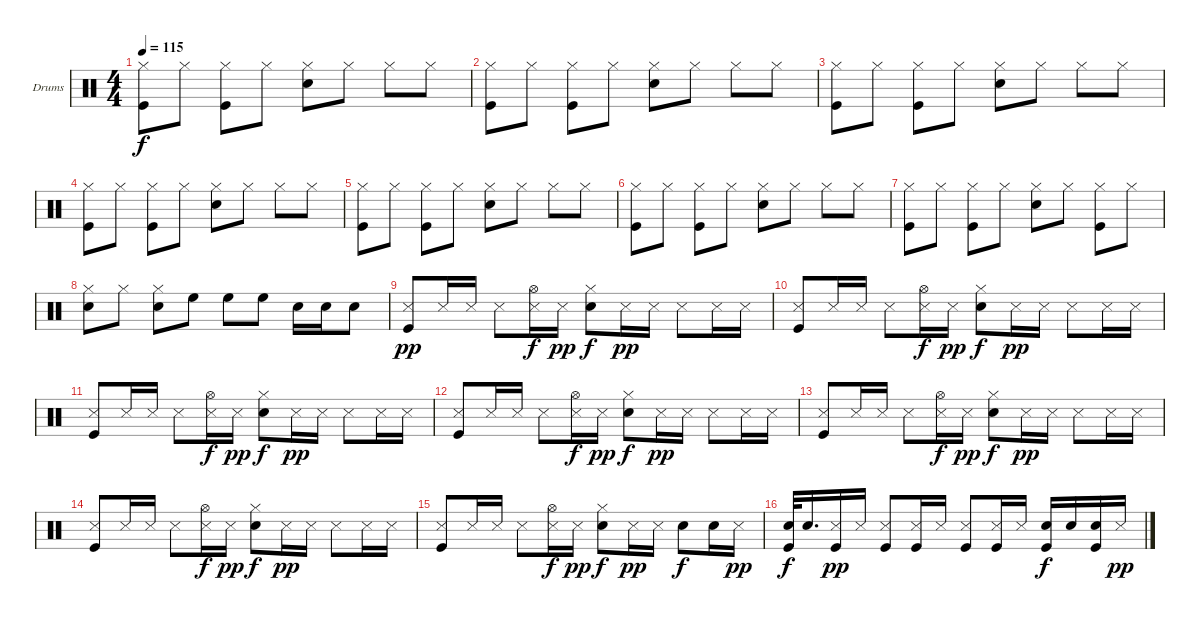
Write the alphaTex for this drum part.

\bracketExtendMode groupsimilarinstruments
\firstSystemTrackNameOrientation horizontal
\otherSystemsTrackNameOrientation horizontal
\track ("Drumkit" "Drums") {instrument percussion}
\staff {score}
\articulation defaults
\ts (4 4)
\tempo 115
\clef neutral
\ks c
("Hi-Hat (closed)" "Kick (hit)").8{dy f} "Hi-Hat (closed)".8 ("Hi-Hat (closed)" "Kick (hit)").8 "Hi-Hat (closed)".8 ("Hi-Hat (closed)" "Snare (hit) 2").8 "Hi-Hat (closed)".8 "Hi-Hat (closed)".8 "Hi-Hat (closed)".8 |
("Hi-Hat (closed)" "Kick (hit)").8 "Hi-Hat (closed)".8 ("Hi-Hat (closed)" "Kick (hit)").8 "Hi-Hat (closed)".8 ("Hi-Hat (closed)" "Snare (hit) 2").8 "Hi-Hat (closed)".8 "Hi-Hat (closed)".8 "Hi-Hat (closed)".8 |
("Hi-Hat (closed)" "Kick (hit)").8 "Hi-Hat (closed)".8 ("Hi-Hat (closed)" "Kick (hit)").8 "Hi-Hat (closed)".8 ("Hi-Hat (closed)" "Snare (hit) 2").8 "Hi-Hat (closed)".8 "Hi-Hat (closed)".8 "Hi-Hat (closed)".8 |
("Hi-Hat (closed)" "Kick (hit)").8 "Hi-Hat (closed)".8 ("Hi-Hat (closed)" "Kick (hit)").8 "Hi-Hat (closed)".8 ("Hi-Hat (closed)" "Snare (hit) 2").8 "Hi-Hat (closed)".8 "Hi-Hat (closed)".8 "Hi-Hat (closed)".8 |
("Hi-Hat (closed)" "Kick (hit)").8 "Hi-Hat (closed)".8 ("Hi-Hat (closed)" "Kick (hit)").8 "Hi-Hat (closed)".8 ("Hi-Hat (closed)" "Snare (hit) 2").8 "Hi-Hat (closed)".8 "Hi-Hat (closed)".8 "Hi-Hat (closed)".8 |
("Hi-Hat (closed)" "Kick (hit)").8 "Hi-Hat (closed)".8 ("Hi-Hat (closed)" "Kick (hit)").8 "Hi-Hat (closed)".8 ("Hi-Hat (closed)" "Snare (hit) 2").8 "Hi-Hat (closed)".8 "Hi-Hat (closed)".8 "Hi-Hat (closed)".8 |
("Hi-Hat (closed)" "Kick (hit)").8 "Hi-Hat (closed)".8 ("Hi-Hat (closed)" "Kick (hit)").8 "Hi-Hat (closed)".8 ("Hi-Hat (closed)" "Snare (hit) 2").8 "Hi-Hat (closed)".8 ("Hi-Hat (closed)" "Kick (hit)").8 "Hi-Hat (closed)".8 |
("Hi-Hat (closed)" "Snare (hit) 2").8 "Hi-Hat (closed)".8 ("Hi-Hat (closed)" "Snare (hit) 2").8 "High Floor Tom (hit)".8 "High Floor Tom (hit)".8 "High Floor Tom (hit)".8 "Snare (hit) 2".16 "Snare (hit) 2".16 "Snare (hit) 2".8 |
("Snare (side stick) 3" "Kick (hit)").8{dy pp} "Snare (side stick) 3".16 "Snare (side stick) 3".16 "Snare (side stick) 3".8 ("Hi-Hat (open)" "Snare (side stick) 3").16{dy f} "Snare (side stick) 3".16{dy pp} ("Hi-Hat (closed)" "Snare (hit) 2").8{dy f} "Snare (side stick) 3".16{dy pp} "Snare (side stick) 3".16 "Snare (side stick) 3".8 "Snare (side stick) 3".16 "Snare (side stick) 3".16 |
("Snare (side stick) 3" "Kick (hit)").8 "Snare (side stick) 3".16 "Snare (side stick) 3".16 "Snare (side stick) 3".8 ("Hi-Hat (open)" "Snare (side stick) 3").16{dy f} "Snare (side stick) 3".16{dy pp} ("Hi-Hat (closed)" "Snare (hit) 2").8{dy f} "Snare (side stick) 3".16{dy pp} "Snare (side stick) 3".16 "Snare (side stick) 3".8 "Snare (side stick) 3".16 "Snare (side stick) 3".16 |
("Snare (side stick) 3" "Kick (hit)").8 "Snare (side stick) 3".16 "Snare (side stick) 3".16 "Snare (side stick) 3".8 ("Hi-Hat (open)" "Snare (side stick) 3").16{dy f} "Snare (side stick) 3".16{dy pp} ("Hi-Hat (closed)" "Snare (hit) 2").8{dy f} "Snare (side stick) 3".16{dy pp} "Snare (side stick) 3".16 "Snare (side stick) 3".8 "Snare (side stick) 3".16 "Snare (side stick) 3".16 |
("Snare (side stick) 3" "Kick (hit)").8 "Snare (side stick) 3".16 "Snare (side stick) 3".16 "Snare (side stick) 3".8 ("Hi-Hat (open)" "Snare (side stick) 3").16{dy f} "Snare (side stick) 3".16{dy pp} ("Hi-Hat (closed)" "Snare (hit) 2").8{dy f} "Snare (side stick) 3".16{dy pp} "Snare (side stick) 3".16 "Snare (side stick) 3".8 "Snare (side stick) 3".16 "Snare (side stick) 3".16 |
("Snare (side stick) 3" "Kick (hit)").8 "Snare (side stick) 3".16 "Snare (side stick) 3".16 "Snare (side stick) 3".8 ("Hi-Hat (open)" "Snare (side stick) 3").16{dy f} "Snare (side stick) 3".16{dy pp} ("Hi-Hat (closed)" "Snare (hit) 2").8{dy f} "Snare (side stick) 3".16{dy pp} "Snare (side stick) 3".16 "Snare (side stick) 3".8 "Snare (side stick) 3".16 "Snare (side stick) 3".16 |
("Snare (side stick) 3" "Kick (hit)").8 "Snare (side stick) 3".16 "Snare (side stick) 3".16 "Snare (side stick) 3".8 ("Hi-Hat (open)" "Snare (side stick) 3").16{dy f} "Snare (side stick) 3".16{dy pp} ("Hi-Hat (closed)" "Snare (hit) 2").8{dy f} "Snare (side stick) 3".16{dy pp} "Snare (side stick) 3".16 "Snare (side stick) 3".8 "Snare (side stick) 3".16 "Snare (side stick) 3".16 |
("Snare (side stick) 3" "Kick (hit)").8 "Snare (side stick) 3".16 "Snare (side stick) 3".16 "Snare (side stick) 3".8 ("Hi-Hat (open)" "Snare (side stick) 3").16{dy f} "Snare (side stick) 3".16{dy pp} ("Hi-Hat (closed)" "Snare (hit) 2").8{dy f} "Snare (side stick) 3".16{dy pp} "Snare (side stick) 3".16 "Snare (hit) 2".8{dy f} "Snare (hit) 2".16 "Snare (side stick) 3".16{dy pp} |
("Snare (hit) 2" "Kick (hit)").32{dy f} "Snare (hit) 2".16{d} ("Snare (side stick) 3" "Kick (hit)").16{dy pp} "Snare (side stick) 3".16 ("Snare (side stick) 3" "Kick (hit)").8 ("Snare (side stick) 3" "Kick (hit)").16 "Snare (side stick) 3".16 ("Snare (side stick) 3" "Kick (hit)").8 ("Snare (side stick) 3" "Kick (hit)").16 "Snare (side stick) 3".16 ("Snare (hit) 2" "Kick (hit)").16{dy f} "Snare (hit) 2".16 ("Snare (hit) 2" "Kick (hit)").16 "Snare (side stick) 3".16{dy pp}
